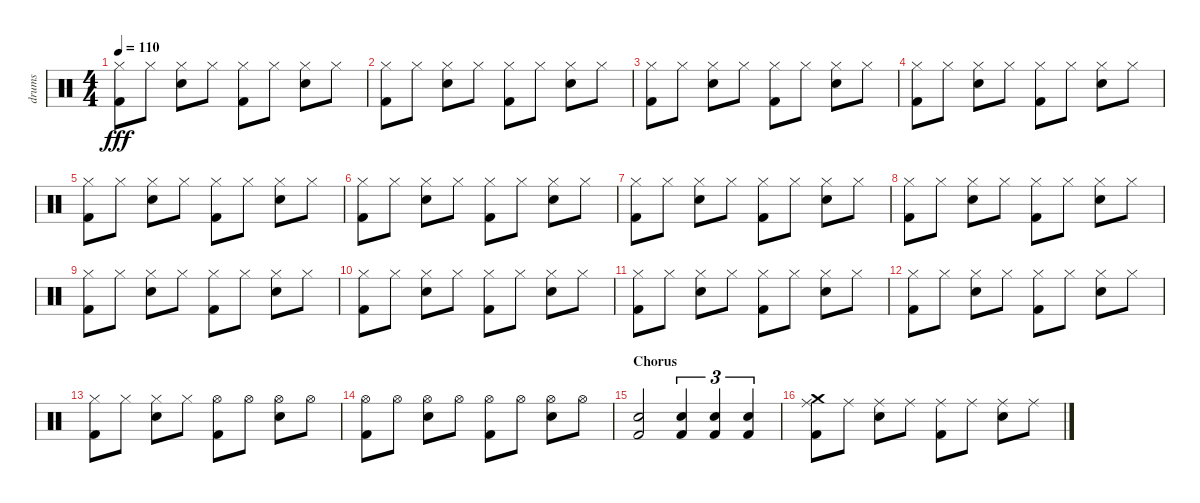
\track ("drums" "drums") {instrument percussion}
\staff {score}
\articulation defaults
\ts (4 4)
\tempo 110
\clef neutral
\ks c
("Kick (hit) 2" "Hi-Hat (closed)").8{dy fff} "Hi-Hat (closed)".8 ("Electric Snare (hit)" "Hi-Hat (closed)").8 "Hi-Hat (closed)".8 ("Kick (hit) 2" "Hi-Hat (closed)").8 "Hi-Hat (closed)".8 ("Electric Snare (hit)" "Hi-Hat (closed)").8 "Hi-Hat (closed)".8 |
("Kick (hit) 2" "Hi-Hat (closed)").8 "Hi-Hat (closed)".8 ("Electric Snare (hit)" "Hi-Hat (closed)").8 "Hi-Hat (closed)".8 ("Kick (hit) 2" "Hi-Hat (closed)").8 "Hi-Hat (closed)".8 ("Electric Snare (hit)" "Hi-Hat (closed)").8 "Hi-Hat (closed)".8 |
("Kick (hit) 2" "Hi-Hat (closed)").8 "Hi-Hat (closed)".8 ("Electric Snare (hit)" "Hi-Hat (closed)").8 "Hi-Hat (closed)".8 ("Kick (hit) 2" "Hi-Hat (closed)").8 "Hi-Hat (closed)".8 ("Electric Snare (hit)" "Hi-Hat (closed)").8 "Hi-Hat (closed)".8 |
("Kick (hit) 2" "Hi-Hat (closed)").8 "Hi-Hat (closed)".8 ("Electric Snare (hit)" "Hi-Hat (closed)").8 "Hi-Hat (closed)".8 ("Kick (hit) 2" "Hi-Hat (closed)").8 "Hi-Hat (closed)".8 ("Electric Snare (hit)" "Hi-Hat (closed)").8 "Hi-Hat (closed)".8 |
("Kick (hit) 2" "Hi-Hat (closed)").8 "Hi-Hat (closed)".8 ("Electric Snare (hit)" "Hi-Hat (closed)").8 "Hi-Hat (closed)".8 ("Kick (hit) 2" "Hi-Hat (closed)").8 "Hi-Hat (closed)".8 ("Electric Snare (hit)" "Hi-Hat (closed)").8 "Hi-Hat (closed)".8 |
("Kick (hit) 2" "Hi-Hat (closed)").8 "Hi-Hat (closed)".8 ("Electric Snare (hit)" "Hi-Hat (closed)").8 "Hi-Hat (closed)".8 ("Kick (hit) 2" "Hi-Hat (closed)").8 "Hi-Hat (closed)".8 ("Electric Snare (hit)" "Hi-Hat (closed)").8 "Hi-Hat (closed)".8 |
("Kick (hit) 2" "Hi-Hat (closed)").8 "Hi-Hat (closed)".8 ("Electric Snare (hit)" "Hi-Hat (closed)").8 "Hi-Hat (closed)".8 ("Kick (hit) 2" "Hi-Hat (closed)").8 "Hi-Hat (closed)".8 ("Electric Snare (hit)" "Hi-Hat (closed)").8 "Hi-Hat (closed)".8 |
("Kick (hit) 2" "Hi-Hat (closed)").8 "Hi-Hat (closed)".8 ("Electric Snare (hit)" "Hi-Hat (closed)").8 "Hi-Hat (closed)".8 ("Kick (hit) 2" "Hi-Hat (closed)").8 "Hi-Hat (closed)".8 ("Electric Snare (hit)" "Hi-Hat (closed)").8 "Hi-Hat (closed)".8 |
("Kick (hit) 2" "Hi-Hat (closed)").8 "Hi-Hat (closed)".8 ("Electric Snare (hit)" "Hi-Hat (closed)").8 "Hi-Hat (closed)".8 ("Kick (hit) 2" "Hi-Hat (closed)").8 "Hi-Hat (closed)".8 ("Electric Snare (hit)" "Hi-Hat (closed)").8 "Hi-Hat (closed)".8 |
("Kick (hit) 2" "Hi-Hat (closed)").8 "Hi-Hat (closed)".8 ("Electric Snare (hit)" "Hi-Hat (closed)").8 "Hi-Hat (closed)".8 ("Kick (hit) 2" "Hi-Hat (closed)").8 "Hi-Hat (closed)".8 ("Electric Snare (hit)" "Hi-Hat (closed)").8 "Hi-Hat (closed)".8 |
("Kick (hit) 2" "Hi-Hat (closed)").8 "Hi-Hat (closed)".8 ("Electric Snare (hit)" "Hi-Hat (closed)").8 "Hi-Hat (closed)".8 ("Kick (hit) 2" "Hi-Hat (closed)").8 "Hi-Hat (closed)".8 ("Electric Snare (hit)" "Hi-Hat (closed)").8 "Hi-Hat (closed)".8 |
("Kick (hit) 2" "Hi-Hat (closed)").8 "Hi-Hat (closed)".8 ("Electric Snare (hit)" "Hi-Hat (closed)").8 "Hi-Hat (closed)".8 ("Kick (hit) 2" "Hi-Hat (closed)").8 "Hi-Hat (closed)".8 ("Electric Snare (hit)" "Hi-Hat (closed)").8 "Hi-Hat (closed)".8 |
("Kick (hit) 2" "Hi-Hat (closed)").8 "Hi-Hat (closed)".8 ("Electric Snare (hit)" "Hi-Hat (closed)").8 "Hi-Hat (closed)".8 ("Kick (hit) 2" "Hi-Hat (open)").8 "Hi-Hat (open)".8 ("Electric Snare (hit)" "Hi-Hat (open)").8 "Hi-Hat (open)".8 |
("Kick (hit) 2" "Hi-Hat (open)").8 "Hi-Hat (open)".8 ("Electric Snare (hit)" "Hi-Hat (open)").8 "Hi-Hat (open)".8 ("Kick (hit) 2" "Hi-Hat (open)").8 "Hi-Hat (open)".8 ("Electric Snare (hit)" "Hi-Hat (open)").8 "Hi-Hat (open)".8 |
\section ("" "Chorus")
("Kick (hit) 2" "Electric Snare (hit)").2 ("Electric Snare (hit)" "Kick (hit) 2").4{tu (3 2)} ("Electric Snare (hit)" "Kick (hit) 2").4{tu (3 2)} ("Electric Snare (hit)" "Kick (hit) 2").4{tu (3 2)} |
("Kick (hit) 2" "Ride (middle)" "Crash medium (hit)").8 "Ride (middle)".8 ("Electric Snare (hit)" "Ride (middle)").8 "Ride (middle)".8 ("Kick (hit) 2" "Ride (middle)").8 "Ride (middle)".8 ("Electric Snare (hit)" "Ride (middle)").8 "Ride (middle)".8
